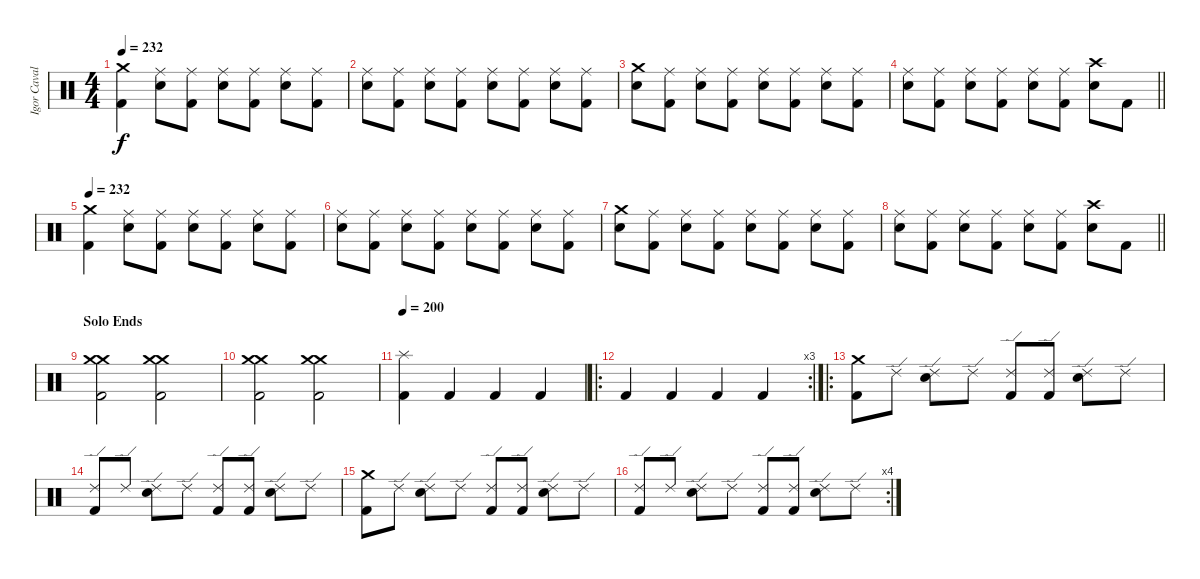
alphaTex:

\track ("Igor Cavalera" "Igor Caval") {instrument percussion}
\staff {score}
\articulation defaults
\ts (4 4)
\tempo 232
\clef neutral
\ks c
("Kick (hit) 2" "Crash medium (hit)").4{dy f} ("Snare (hit) 2" "Ride (middle)").8 ("Kick (hit) 2" "Ride (middle)").8 ("Snare (hit) 2" "Ride (middle)").8 ("Kick (hit) 2" "Ride (middle)").8 ("Snare (hit) 2" "Ride (middle)").8 ("Kick (hit) 2" "Ride (middle)").8 |
("Snare (hit) 2" "Ride (middle)").8 ("Kick (hit) 2" "Ride (middle)").8 ("Snare (hit) 2" "Ride (middle)").8 ("Kick (hit) 2" "Ride (middle)").8 ("Snare (hit) 2" "Ride (middle)").8 ("Kick (hit) 2" "Ride (middle)").8 ("Snare (hit) 2" "Ride (middle)").8 ("Kick (hit) 2" "Ride (middle)").8 |
("Snare (hit) 2" "Crash medium (hit)").8 ("Kick (hit) 2" "Ride (middle)").8 ("Snare (hit) 2" "Ride (middle)").8 ("Kick (hit) 2" "Ride (middle)").8 ("Snare (hit) 2" "Ride (middle)").8 ("Kick (hit) 2" "Ride (middle)").8 ("Snare (hit) 2" "Ride (middle)").8 ("Kick (hit) 2" "Ride (middle)").8 |
\barLineRight lightlight
("Snare (hit) 2" "Ride (middle)").8 ("Kick (hit) 2" "Ride (middle)").8 ("Snare (hit) 2" "Ride (middle)").8 ("Kick (hit) 2" "Ride (middle)").8 ("Snare (hit) 2" "Ride (middle)").8 ("Kick (hit) 2" "Ride (middle)").8 ("Snare (hit) 2" "Crash high (hit)").8 "Kick (hit) 2".8 |
\tempo 232
("Kick (hit) 2" "Crash medium (hit)").4 ("Snare (hit) 2" "Ride (middle)").8 ("Kick (hit) 2" "Ride (middle)").8 ("Snare (hit) 2" "Ride (middle)").8 ("Kick (hit) 2" "Ride (middle)").8 ("Snare (hit) 2" "Ride (middle)").8 ("Kick (hit) 2" "Ride (middle)").8 |
("Snare (hit) 2" "Ride (middle)").8 ("Kick (hit) 2" "Ride (middle)").8 ("Snare (hit) 2" "Ride (middle)").8 ("Kick (hit) 2" "Ride (middle)").8 ("Snare (hit) 2" "Ride (middle)").8 ("Kick (hit) 2" "Ride (middle)").8 ("Snare (hit) 2" "Ride (middle)").8 ("Kick (hit) 2" "Ride (middle)").8 |
("Snare (hit) 2" "Crash medium (hit)").8 ("Kick (hit) 2" "Ride (middle)").8 ("Snare (hit) 2" "Ride (middle)").8 ("Kick (hit) 2" "Ride (middle)").8 ("Snare (hit) 2" "Ride (middle)").8 ("Kick (hit) 2" "Ride (middle)").8 ("Snare (hit) 2" "Ride (middle)").8 ("Kick (hit) 2" "Ride (middle)").8 |
\barLineRight lightlight
("Snare (hit) 2" "Ride (middle)").8 ("Kick (hit) 2" "Ride (middle)").8 ("Snare (hit) 2" "Ride (middle)").8 ("Kick (hit) 2" "Ride (middle)").8 ("Snare (hit) 2" "Ride (middle)").8 ("Kick (hit) 2" "Ride (middle)").8 ("Snare (hit) 2" "Crash high (hit)").8 "Kick (hit) 2".8 |
\section ("" "Solo Ends")
("Kick (hit) 2" "Crash medium (hit)" "Crash medium (hit)").2 ("Kick (hit) 2" "Crash medium (hit)" "Crash medium (hit)").2 |
("Kick (hit) 2" "Crash medium (hit)" "Crash medium (hit)").2 ("Kick (hit) 2" "Crash medium (hit)" "Crash medium (hit)").2 |
\tempo 200
("Kick (hit) 2" "Splash (hit)").4 "Kick (hit) 2".4 "Kick (hit) 2".4 "Kick (hit) 2".4 |
\ro
\rc 3 "Kick (hit) 2".4 "Kick (hit) 2".4 "Kick (hit) 2".4 "Kick (hit) 2".4
|
\ro
("Kick (hit) 2" "Crash medium (hit)").8 "Ride (edge) 2".8 ("Snare (hit) 2" "Ride (edge) 2").8 "Ride (edge) 2".8 ("Kick (hit) 2" "Ride (edge) 2").8 ("Kick (hit) 2" "Ride (edge) 2").8 ("Snare (hit) 2" "Ride (edge) 2").8 "Ride (edge) 2".8 |
("Kick (hit) 2" "Ride (edge) 2").8 "Ride (edge) 2".8 ("Snare (hit) 2" "Ride (edge) 2").8 "Ride (edge) 2".8 ("Kick (hit) 2" "Ride (edge) 2").8 ("Kick (hit) 2" "Ride (edge) 2").8 ("Snare (hit) 2" "Ride (edge) 2").8 "Ride (edge) 2".8 |
("Kick (hit) 2" "Crash medium (hit)").8 "Ride (edge) 2".8 ("Snare (hit) 2" "Ride (edge) 2").8 "Ride (edge) 2".8 ("Kick (hit) 2" "Ride (edge) 2").8 ("Kick (hit) 2" "Ride (edge) 2").8 ("Snare (hit) 2" "Ride (edge) 2").8 "Ride (edge) 2".8 |
\rc 4
("Kick (hit) 2" "Ride (edge) 2").8 "Ride (edge) 2".8 ("Snare (hit) 2" "Ride (edge) 2").8 "Ride (edge) 2".8 ("Kick (hit) 2" "Ride (edge) 2").8 ("Kick (hit) 2" "Ride (edge) 2").8 ("Snare (hit) 2" "Ride (edge) 2").8 "Ride (edge) 2".8
